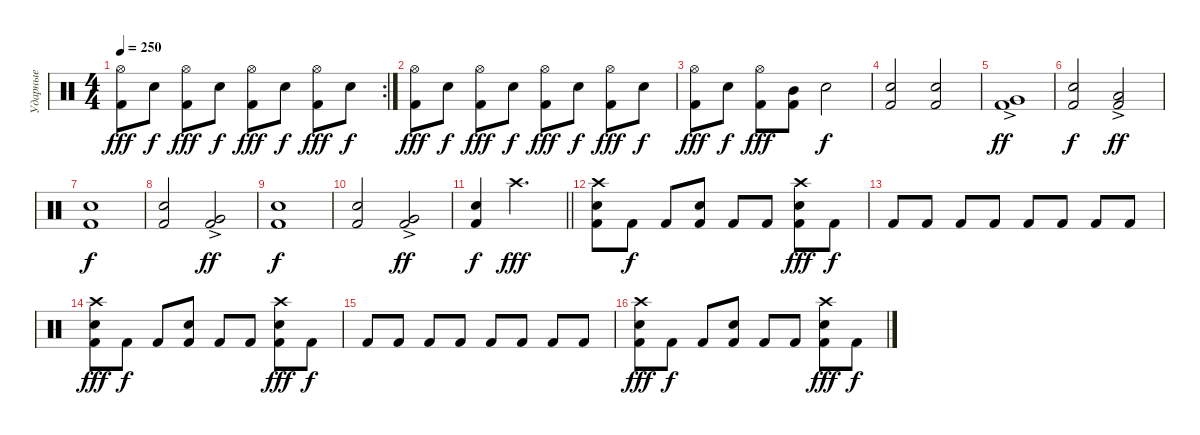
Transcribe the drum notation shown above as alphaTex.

\track ("Ударные" "Ударные") {instrument percussion}
\staff {score}
\articulation defaults
\rc 2
\ts (4 4)
\tempo 250
\clef neutral
\ks c
("Kick (hit) 2" "Hi-Hat (open)").8{dy fff} "Snare (hit) 2".8{dy f} ("Kick (hit) 2" "Hi-Hat (open)").8{dy fff} "Snare (hit) 2".8{dy f} ("Kick (hit) 2" "Hi-Hat (open)").8{dy fff} "Snare (hit) 2".8{dy f} ("Kick (hit) 2" "Hi-Hat (open)").8{dy fff} "Snare (hit) 2".8{dy f} |
("Kick (hit) 2" "Hi-Hat (open)").8{dy fff} "Snare (hit) 2".8{dy f} ("Kick (hit) 2" "Hi-Hat (open)").8{dy fff} "Snare (hit) 2".8{dy f} ("Kick (hit) 2" "Hi-Hat (open)").8{dy fff} "Snare (hit) 2".8{dy f} ("Kick (hit) 2" "Hi-Hat (open)").8{dy fff} "Snare (hit) 2".8{dy f} |
("Kick (hit) 2" "Hi-Hat (open)").8{dy fff} "Snare (hit) 2".8{dy f} ("Kick (hit) 2" "Hi-Hat (open)").8{dy fff} ("Kick (hit) 2" "Mid Tom (hit)").8 "Snare (hit) 2".2{dy f} |
("Kick (hit) 2" "Snare (hit) 2").2 ("Kick (hit) 2" "Snare (hit) 2").2 |
("Kick (hit) 2" "Very Low Tom (hit)"{ac}).1{dy ff} |
("Kick (hit) 2" "Snare (hit) 2").2{dy f} ("Kick (hit) 2" "Low Tom (hit)"{ac}).2{dy ff} |
("Kick (hit) 2" "Snare (hit) 2").1{dy f} |
("Kick (hit) 2" "Snare (hit) 2").2 ("Kick (hit) 2" "Very Low Tom (hit)"{ac}).2{dy ff} |
("Kick (hit) 2" "Snare (hit) 2").1{dy f} |
("Kick (hit) 2" "Snare (hit) 2").2 ("Kick (hit) 2" "Very Low Tom (hit)"{ac}).2{dy ff} |
\barLineRight lightlight
("Kick (hit) 2" "Snare (hit) 2").4{dy f} "Crash high (hit)".2{d dy fff} |
("Kick (hit) 2" "Snare (hit) 2" "Crash high (hit)").8 "Kick (hit) 2".8{dy f} "Kick (hit) 2".8 ("Kick (hit) 2" "Snare (hit) 2").8 "Kick (hit) 2".8 "Kick (hit) 2".8 ("Kick (hit) 2" "Snare (hit) 2" "Crash high (hit)").8{dy fff} "Kick (hit) 2".8{dy f} |
"Kick (hit) 2".8 "Kick (hit) 2".8 "Kick (hit) 2".8 "Kick (hit) 2".8 "Kick (hit) 2".8 "Kick (hit) 2".8 "Kick (hit) 2".8 "Kick (hit) 2".8 |
("Kick (hit) 2" "Snare (hit) 2" "Crash high (hit)").8{dy fff} "Kick (hit) 2".8{dy f} "Kick (hit) 2".8 ("Kick (hit) 2" "Snare (hit) 2").8 "Kick (hit) 2".8 "Kick (hit) 2".8 ("Kick (hit) 2" "Snare (hit) 2" "Crash high (hit)").8{dy fff} "Kick (hit) 2".8{dy f} |
"Kick (hit) 2".8 "Kick (hit) 2".8 "Kick (hit) 2".8 "Kick (hit) 2".8 "Kick (hit) 2".8 "Kick (hit) 2".8 "Kick (hit) 2".8 "Kick (hit) 2".8 |
("Kick (hit) 2" "Snare (hit) 2" "Crash high (hit)").8{dy fff} "Kick (hit) 2".8{dy f} "Kick (hit) 2".8 ("Kick (hit) 2" "Snare (hit) 2").8 "Kick (hit) 2".8 "Kick (hit) 2".8 ("Kick (hit) 2" "Snare (hit) 2" "Crash high (hit)").8{dy fff} "Kick (hit) 2".8{dy f}
